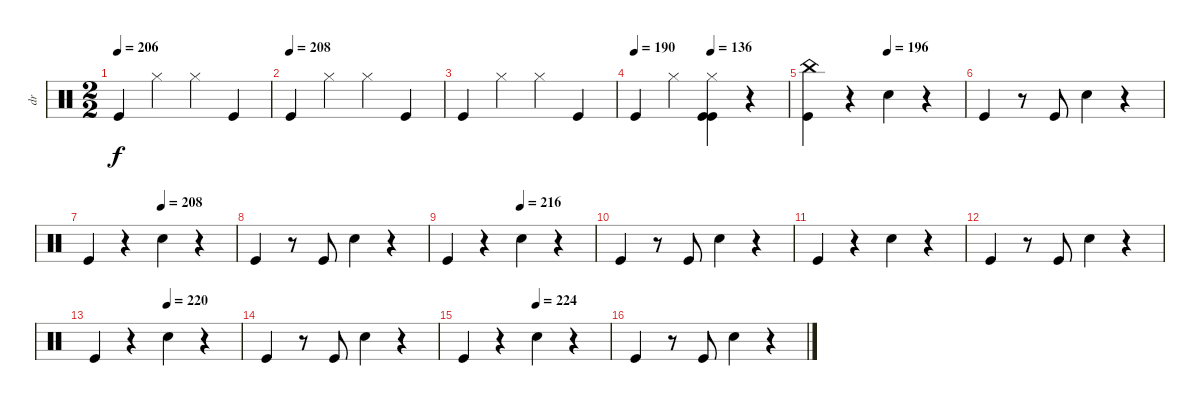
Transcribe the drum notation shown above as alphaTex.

\track ("dr" "dr") {instrument percussion}
\staff {score}
\articulation defaults
\ts (2 2)
\tempo 206
\clef neutral
\ks c "Kick (hit)".4{dy f} "Hi-Hat (closed)".4 "Hi-Hat (closed)".4 "Kick (hit)".4
|
\tempo (208)
"Kick (hit)".4 "Hi-Hat (closed)".4 "Hi-Hat (closed)".4 "Kick (hit)".4 |
"Kick (hit)".4 "Hi-Hat (closed)".4 "Hi-Hat (closed)".4 "Kick (hit)".4 |
\tempo 190
\tempo (136 0.5)
"Kick (hit)".4 "Hi-Hat (closed)".4 ("Kick (hit)" "Kick (hit)" "Hi-Hat (closed)").4 r.4 |
\tempo (196 0.5)
("China (hit)" "Kick (hit)").4 r.4 "Snare (hit) 2".4 r.4 |
"Kick (hit)".4 r.8 "Kick (hit)".8 "Snare (hit) 2".4 r.4 |
\tempo (208 0.5)
"Kick (hit)".4 r.4 "Snare (hit) 2".4 r.4 |
"Kick (hit)".4 r.8 "Kick (hit)".8 "Snare (hit) 2".4 r.4 |
\tempo (216 0.5)
"Kick (hit)".4 r.4 "Snare (hit) 2".4 r.4 |
"Kick (hit)".4 r.8 "Kick (hit)".8 "Snare (hit) 2".4 r.4 |
"Kick (hit)".4 r.4 "Snare (hit) 2".4 r.4 |
"Kick (hit)".4 r.8 "Kick (hit)".8 "Snare (hit) 2".4 r.4 |
\tempo (220 0.5)
"Kick (hit)".4 r.4 "Snare (hit) 2".4 r.4 |
"Kick (hit)".4 r.8 "Kick (hit)".8 "Snare (hit) 2".4 r.4 |
\tempo (224 0.5)
"Kick (hit)".4 r.4 "Snare (hit) 2".4 r.4 |
"Kick (hit)".4 r.8 "Kick (hit)".8 "Snare (hit) 2".4 r.4
